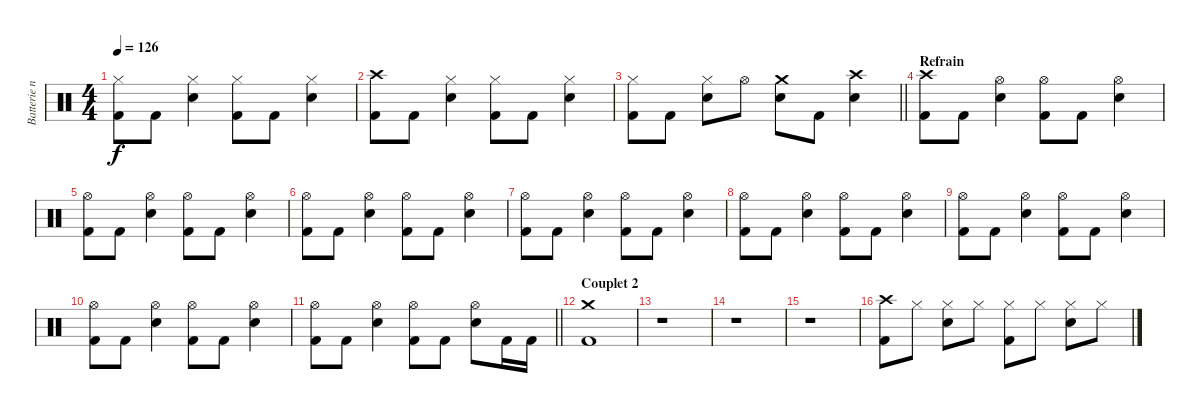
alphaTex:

\track ("Batterie n°3" "Batterie n") {instrument percussion}
\staff {score}
\articulation defaults
\ts (4 4)
\tempo 126
\clef neutral
\ks c
("Hi-Hat (closed)" "Kick (hit) 2").8{dy f} "Kick (hit) 2".8 ("Hi-Hat (closed)" "Snare (hit) 2").4 ("Hi-Hat (closed)" "Kick (hit) 2").8 "Kick (hit) 2".8 ("Hi-Hat (closed)" "Snare (hit) 2").4 |
("Crash high (hit)" "Kick (hit) 2").8 "Kick (hit) 2".8 ("Hi-Hat (closed)" "Snare (hit) 2").4 ("Hi-Hat (closed)" "Kick (hit) 2").8 "Kick (hit) 2".8 ("Hi-Hat (closed)" "Snare (hit) 2").4 |
\barLineRight lightlight
("Hi-Hat (closed)" "Kick (hit) 2").8 "Kick (hit) 2".8 ("Hi-Hat (closed)" "Snare (hit) 2").8 "Hi-Hat (open)".8 ("Crash medium (hit)" "Snare (hit) 2").8 "Kick (hit) 2".8 ("Crash high (hit)" "Snare (hit) 2").4 |
\section ("" "Refrain")
("Crash high (hit)" "Kick (hit) 2").8 "Kick (hit) 2".8 ("Hi-Hat (open)" "Snare (hit) 2").4 ("Hi-Hat (open)" "Kick (hit) 2").8 "Kick (hit) 2".8 ("Hi-Hat (open)" "Snare (hit) 2").4 |
("Hi-Hat (open)" "Kick (hit) 2").8 "Kick (hit) 2".8 ("Hi-Hat (open)" "Snare (hit) 2").4 ("Hi-Hat (open)" "Kick (hit) 2").8 "Kick (hit) 2".8 ("Hi-Hat (open)" "Snare (hit) 2").4 |
("Hi-Hat (open)" "Kick (hit) 2").8 "Kick (hit) 2".8 ("Hi-Hat (open)" "Snare (hit) 2").4 ("Hi-Hat (open)" "Kick (hit) 2").8 "Kick (hit) 2".8 ("Hi-Hat (open)" "Snare (hit) 2").4 |
("Hi-Hat (open)" "Kick (hit) 2").8 "Kick (hit) 2".8 ("Hi-Hat (open)" "Snare (hit) 2").4 ("Hi-Hat (open)" "Kick (hit) 2").8 "Kick (hit) 2".8 ("Hi-Hat (open)" "Snare (hit) 2").4 |
("Hi-Hat (open)" "Kick (hit) 2").8 "Kick (hit) 2".8 ("Hi-Hat (open)" "Snare (hit) 2").4 ("Hi-Hat (open)" "Kick (hit) 2").8 "Kick (hit) 2".8 ("Hi-Hat (open)" "Snare (hit) 2").4 |
("Hi-Hat (open)" "Kick (hit) 2").8 "Kick (hit) 2".8 ("Hi-Hat (open)" "Snare (hit) 2").4 ("Hi-Hat (open)" "Kick (hit) 2").8 "Kick (hit) 2".8 ("Hi-Hat (open)" "Snare (hit) 2").4 |
("Hi-Hat (open)" "Kick (hit) 2").8 "Kick (hit) 2".8 ("Hi-Hat (open)" "Snare (hit) 2").4 ("Hi-Hat (open)" "Kick (hit) 2").8 "Kick (hit) 2".8 ("Hi-Hat (open)" "Snare (hit) 2").4 |
\barLineRight lightlight
("Hi-Hat (open)" "Kick (hit) 2").8 "Kick (hit) 2".8 ("Hi-Hat (open)" "Snare (hit) 2").4 ("Hi-Hat (open)" "Kick (hit) 2").8 "Kick (hit) 2".8 ("Hi-Hat (open)" "Snare (hit) 2").8 "Kick (hit) 2".16 "Kick (hit) 2".16 |
\section ("" "Couplet 2")
("Crash medium (hit)" "Kick (hit) 2").1 |
r.1 |
r.1 |
r.1 |
("Crash high (hit)" "Kick (hit) 2").8 "Hi-Hat (closed)".8 ("Hi-Hat (closed)" "Snare (hit) 2").8 "Hi-Hat (closed)".8 ("Hi-Hat (closed)" "Kick (hit) 2").8 "Hi-Hat (closed)".8 ("Hi-Hat (closed)" "Snare (hit) 2").8 "Hi-Hat (closed)".8
